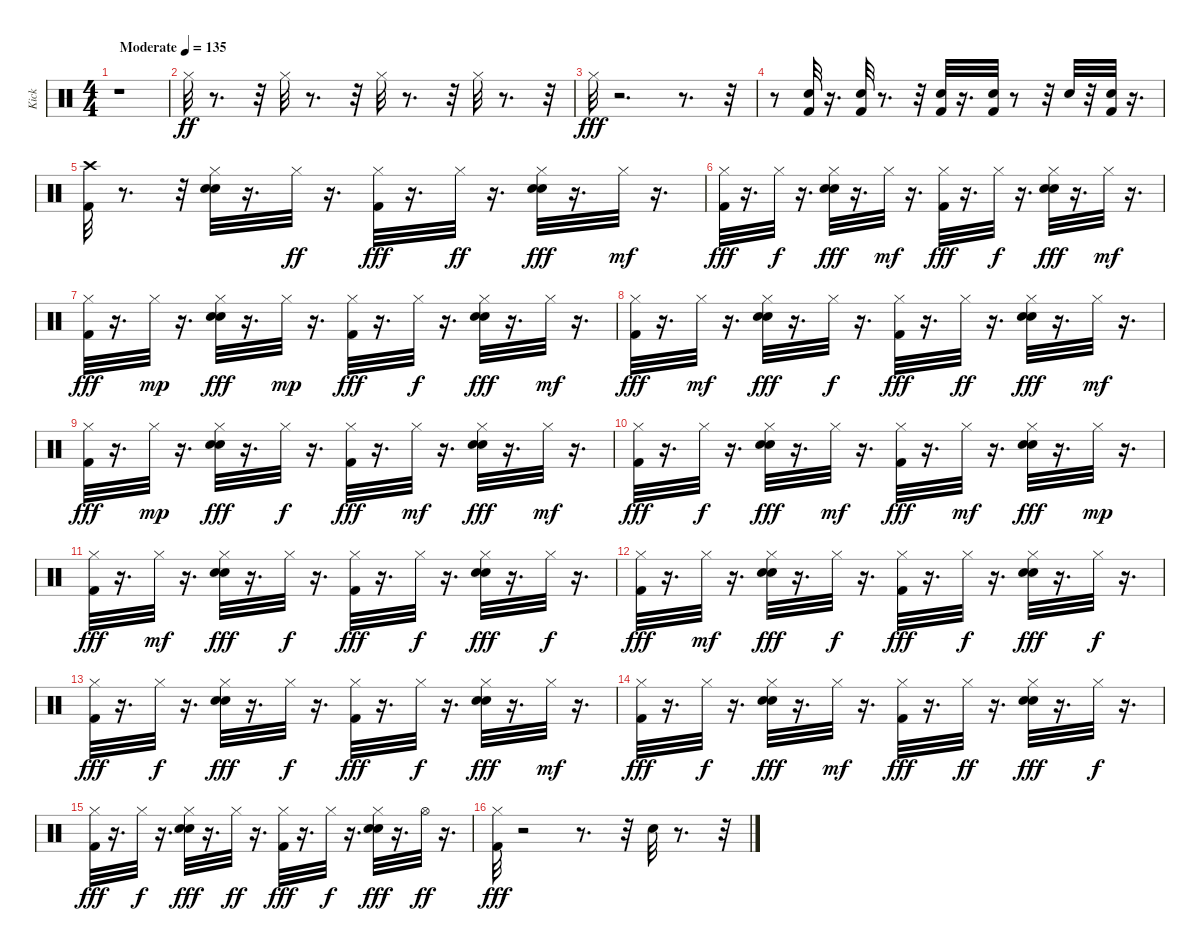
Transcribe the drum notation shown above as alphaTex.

\track ("Kick" "Kick") {instrument percussion}
\staff {score}
\articulation defaults
\ts (4 4)
\tempo (135 "Moderate")
\clef neutral
\ks c
r.1{dy ff} |
"Hi-Hat (closed)".32 r.8{d} r.32 "Hi-Hat (closed)".32 r.8{d} r.32 "Hi-Hat (closed)".32 r.8{d} r.32 "Hi-Hat (closed)".32 r.8{d} r.32 |
"Hi-Hat (closed)".32{dy fff} r.2{d} r.8{d} r.32 |
r.8 ("Kick (hit) 2" "Electric Snare (hit)").32 r.16{d} ("Kick (hit) 2" "Electric Snare (hit)").32 r.8{d} r.32 ("Kick (hit) 2" "Electric Snare (hit)").32 r.16{d} ("Kick (hit) 2" "Electric Snare (hit)").32 r.8 r.32 "Electric Snare (hit)".32 r.32 ("Kick (hit) 2" "Electric Snare (hit)").32 r.16{d} |
("Kick (hit) 2" "Crash high (hit)").32 r.8{d} r.32 ("Electric Snare (hit)" "Hi-Hat (closed)" "Hand Clap (hit)").32 r.16{d} "Hi-Hat (closed)".32{dy ff} r.16{d} ("Kick (hit) 2" "Hi-Hat (closed)").32{dy fff} r.16{d} "Hi-Hat (closed)".32{dy ff} r.16{d} ("Electric Snare (hit)" "Hi-Hat (closed)" "Hand Clap (hit)").32{dy fff} r.16{d} "Hi-Hat (closed)".32{dy mf} r.16{d} |
("Kick (hit) 2" "Hi-Hat (closed)").32{dy fff} r.16{d} "Hi-Hat (closed)".32{dy f} r.16{d} ("Electric Snare (hit)" "Hi-Hat (closed)" "Hand Clap (hit)").32{dy fff} r.16{d} "Hi-Hat (closed)".32{dy mf} r.16{d} ("Kick (hit) 2" "Hi-Hat (closed)").32{dy fff} r.16{d} "Hi-Hat (closed)".32{dy f} r.16{d} ("Electric Snare (hit)" "Hi-Hat (closed)" "Hand Clap (hit)").32{dy fff} r.16{d} "Hi-Hat (closed)".32{dy mf} r.16{d} |
("Kick (hit) 2" "Hi-Hat (closed)").32{dy fff} r.16{d} "Hi-Hat (closed)".32{dy mp} r.16{d} ("Electric Snare (hit)" "Hi-Hat (closed)" "Hand Clap (hit)").32{dy fff} r.16{d} "Hi-Hat (closed)".32{dy mp} r.16{d} ("Kick (hit) 2" "Hi-Hat (closed)").32{dy fff} r.16{d} "Hi-Hat (closed)".32{dy f} r.16{d} ("Electric Snare (hit)" "Hi-Hat (closed)" "Hand Clap (hit)").32{dy fff} r.16{d} "Hi-Hat (closed)".32{dy mf} r.16{d} |
("Kick (hit) 2" "Hi-Hat (closed)").32{dy fff} r.16{d} "Hi-Hat (closed)".32{dy mf} r.16{d} ("Electric Snare (hit)" "Hi-Hat (closed)" "Hand Clap (hit)").32{dy fff} r.16{d} "Hi-Hat (closed)".32{dy f} r.16{d} ("Kick (hit) 2" "Hi-Hat (closed)").32{dy fff} r.16{d} "Hi-Hat (closed)".32{dy ff} r.16{d} ("Electric Snare (hit)" "Hi-Hat (closed)" "Hand Clap (hit)").32{dy fff} r.16{d} "Hi-Hat (closed)".32{dy mf} r.16{d} |
("Kick (hit) 2" "Hi-Hat (closed)").32{dy fff} r.16{d} "Hi-Hat (closed)".32{dy mp} r.16{d} ("Electric Snare (hit)" "Hi-Hat (closed)" "Hand Clap (hit)").32{dy fff} r.16{d} "Hi-Hat (closed)".32{dy f} r.16{d} ("Kick (hit) 2" "Hi-Hat (closed)").32{dy fff} r.16{d} "Hi-Hat (closed)".32{dy mf} r.16{d} ("Electric Snare (hit)" "Hi-Hat (closed)" "Hand Clap (hit)").32{dy fff} r.16{d} "Hi-Hat (closed)".32{dy mf} r.16{d} |
("Kick (hit) 2" "Hi-Hat (closed)").32{dy fff} r.16{d} "Hi-Hat (closed)".32{dy f} r.16{d} ("Electric Snare (hit)" "Hi-Hat (closed)" "Hand Clap (hit)").32{dy fff} r.16{d} "Hi-Hat (closed)".32{dy mf} r.16{d} ("Kick (hit) 2" "Hi-Hat (closed)").32{dy fff} r.16{d} "Hi-Hat (closed)".32{dy mf} r.16{d} ("Electric Snare (hit)" "Hi-Hat (closed)" "Hand Clap (hit)").32{dy fff} r.16{d} "Hi-Hat (closed)".32{dy mp} r.16{d} |
("Kick (hit) 2" "Hi-Hat (closed)").32{dy fff} r.16{d} "Hi-Hat (closed)".32{dy mf} r.16{d} ("Electric Snare (hit)" "Hi-Hat (closed)" "Hand Clap (hit)").32{dy fff} r.16{d} "Hi-Hat (closed)".32{dy f} r.16{d} ("Kick (hit) 2" "Hi-Hat (closed)").32{dy fff} r.16{d} "Hi-Hat (closed)".32{dy f} r.16{d} ("Electric Snare (hit)" "Hi-Hat (closed)" "Hand Clap (hit)").32{dy fff} r.16{d} "Hi-Hat (closed)".32{dy f} r.16{d} |
("Kick (hit) 2" "Hi-Hat (closed)").32{dy fff} r.16{d} "Hi-Hat (closed)".32{dy mf} r.16{d} ("Electric Snare (hit)" "Hi-Hat (closed)" "Hand Clap (hit)").32{dy fff} r.16{d} "Hi-Hat (closed)".32{dy f} r.16{d} ("Kick (hit) 2" "Hi-Hat (closed)").32{dy fff} r.16{d} "Hi-Hat (closed)".32{dy f} r.16{d} ("Electric Snare (hit)" "Hi-Hat (closed)" "Hand Clap (hit)").32{dy fff} r.16{d} "Hi-Hat (closed)".32{dy f} r.16{d} |
("Kick (hit) 2" "Hi-Hat (closed)").32{dy fff} r.16{d} "Hi-Hat (closed)".32{dy f} r.16{d} ("Electric Snare (hit)" "Hi-Hat (closed)" "Hand Clap (hit)").32{dy fff} r.16{d} "Hi-Hat (closed)".32{dy f} r.16{d} ("Kick (hit) 2" "Hi-Hat (closed)").32{dy fff} r.16{d} "Hi-Hat (closed)".32{dy f} r.16{d} ("Electric Snare (hit)" "Hi-Hat (closed)" "Hand Clap (hit)").32{dy fff} r.16{d} "Hi-Hat (closed)".32{dy mf} r.16{d} |
("Kick (hit) 2" "Hi-Hat (closed)").32{dy fff} r.16{d} "Hi-Hat (closed)".32{dy f} r.16{d} ("Electric Snare (hit)" "Hi-Hat (closed)" "Hand Clap (hit)").32{dy fff} r.16{d} "Hi-Hat (closed)".32{dy mf} r.16{d} ("Kick (hit) 2" "Hi-Hat (closed)").32{dy fff} r.16{d} "Hi-Hat (closed)".32{dy ff} r.16{d} ("Electric Snare (hit)" "Hi-Hat (closed)" "Hand Clap (hit)").32{dy fff} r.16{d} "Hi-Hat (closed)".32{dy f} r.16{d} |
("Kick (hit) 2" "Hi-Hat (closed)").32{dy fff} r.16{d} "Hi-Hat (closed)".32{dy f} r.16{d} ("Electric Snare (hit)" "Hi-Hat (closed)" "Hand Clap (hit)").32{dy fff} r.16{d} "Hi-Hat (closed)".32{dy ff} r.16{d} ("Kick (hit) 2" "Hi-Hat (closed)").32{dy fff} r.16{d} "Hi-Hat (closed)".32{dy f} r.16{d} ("Electric Snare (hit)" "Hi-Hat (closed)" "Hand Clap (hit)").32{dy fff} r.16{d} "Hi-Hat (open)".32{dy ff} r.16{d} |
("Kick (hit) 2" "Hi-Hat (closed)").32{dy fff} r.2 r.8{d} r.32 "Electric Snare (hit)".32 r.8{d} r.32
